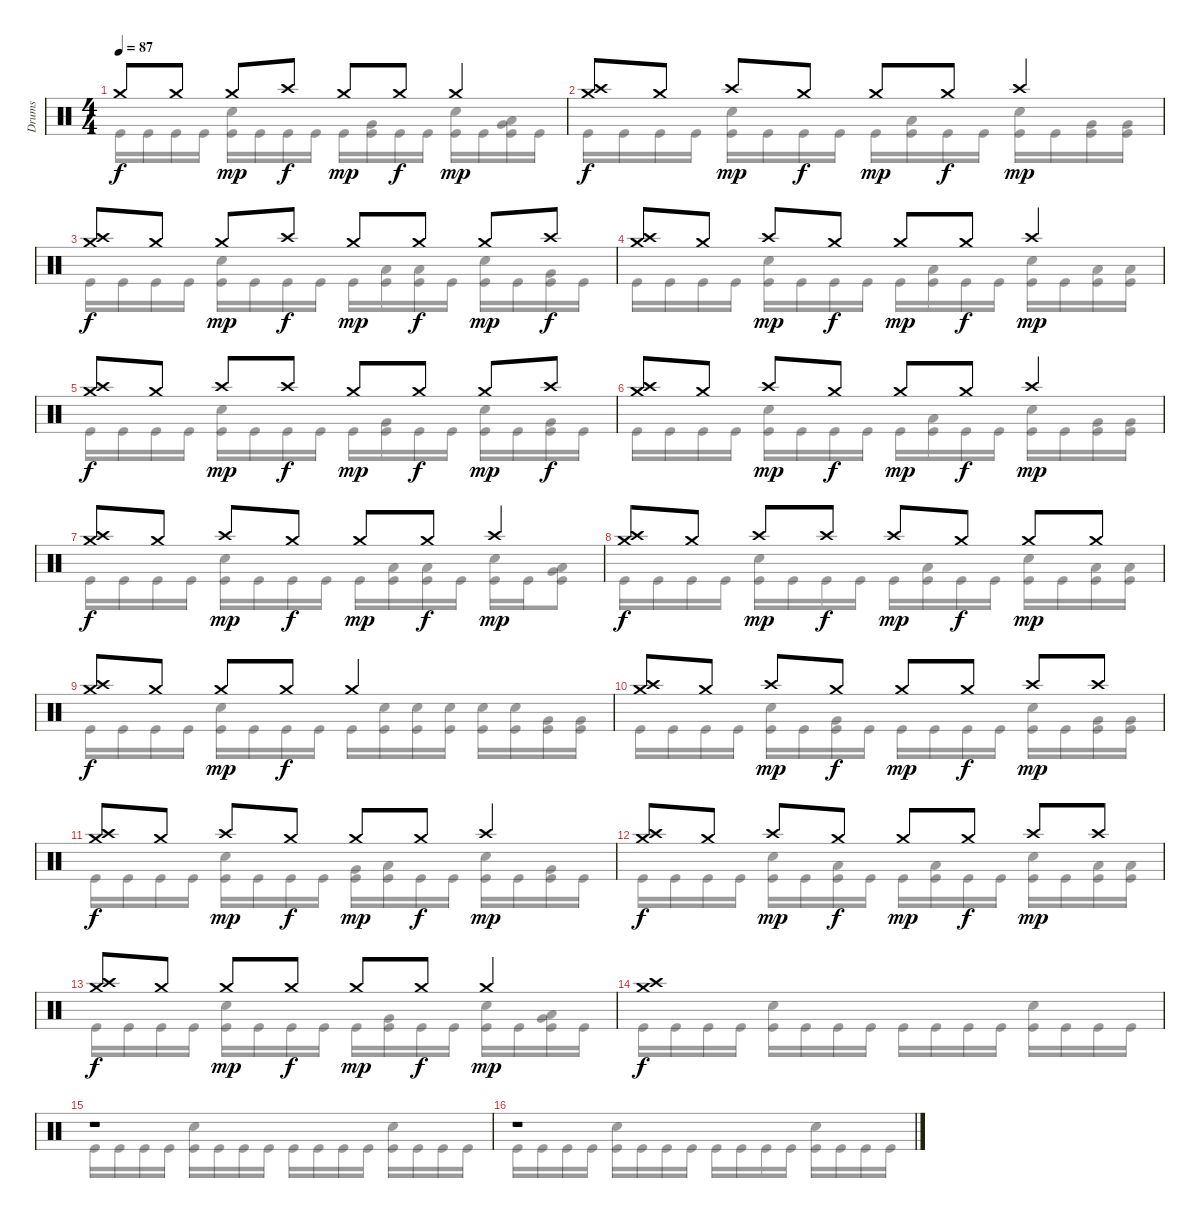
\track ("Drums" "Drums") {instrument percussion}
\staff {score}
\articulation defaults
\voice
\ts (4 4)
\tempo 87
\clef neutral
\ks c "Crash medium (hit)".8{dy f} "Crash medium (hit)".8 "Crash medium (hit)".8{dy mp} "Crash high (hit)".8{dy f} "Crash medium (hit)".8{dy mp} "Crash medium (hit)".8{dy f} "Crash medium (hit)".4{dy mp}
|
("Crash medium (hit)" "Crash high (hit)").8{dy f} "Crash medium (hit)".8 "Crash high (hit)".8{dy mp} "Crash medium (hit)".8{dy f} "Crash medium (hit)".8{dy mp} "Crash medium (hit)".8{dy f} "Crash high (hit)".4{dy mp} |
("Crash medium (hit)" "Crash high (hit)").8{dy f} "Crash medium (hit)".8 "Crash medium (hit)".8{dy mp} "Crash high (hit)".8{dy f} "Crash medium (hit)".8{dy mp} "Crash medium (hit)".8{dy f} "Crash medium (hit)".8{dy mp} "Crash high (hit)".8{dy f} |
("Crash medium (hit)" "Crash high (hit)").8 "Crash medium (hit)".8 "Crash high (hit)".8{dy mp} "Crash medium (hit)".8{dy f} "Crash medium (hit)".8{dy mp} "Crash medium (hit)".8{dy f} "Crash high (hit)".4{dy mp} |
("Crash medium (hit)" "Crash high (hit)").8{dy f} "Crash medium (hit)".8 "Crash high (hit)".8{dy mp} "Crash high (hit)".8{dy f} "Crash medium (hit)".8{dy mp} "Crash medium (hit)".8{dy f} "Crash medium (hit)".8{dy mp} "Crash high (hit)".8{dy f} |
("Crash medium (hit)" "Crash high (hit)").8 "Crash medium (hit)".8 "Crash high (hit)".8{dy mp} "Crash medium (hit)".8{dy f} "Crash medium (hit)".8{dy mp} "Crash medium (hit)".8{dy f} "Crash high (hit)".4{dy mp} |
("Crash medium (hit)" "Crash high (hit)").8{dy f} "Crash medium (hit)".8 "Crash high (hit)".8{dy mp} "Crash medium (hit)".8{dy f} "Crash medium (hit)".8{dy mp} "Crash medium (hit)".8{dy f} "Crash high (hit)".4{dy mp} |
("Crash medium (hit)" "Crash high (hit)").8{dy f} "Crash medium (hit)".8 "Crash high (hit)".8{dy mp} "Crash high (hit)".8{dy f} "Crash high (hit)".8{dy mp} "Crash medium (hit)".8{dy f} "Crash medium (hit)".8{dy mp} "Crash medium (hit)".8 |
("Crash medium (hit)" "Crash high (hit)").8{dy f} "Crash medium (hit)".8 "Crash medium (hit)".8{dy mp} "Crash medium (hit)".8{dy f} "Crash medium (hit)".2 |
("Crash medium (hit)" "Crash high (hit)").8 "Crash medium (hit)".8 "Crash high (hit)".8{dy mp} "Crash medium (hit)".8{dy f} "Crash medium (hit)".8{dy mp} "Crash medium (hit)".8{dy f} "Crash high (hit)".8{dy mp} "Crash high (hit)".8 |
("Crash medium (hit)" "Crash high (hit)").8{dy f} "Crash medium (hit)".8 "Crash high (hit)".8{dy mp} "Crash medium (hit)".8{dy f} "Crash medium (hit)".8{dy mp} "Crash medium (hit)".8{dy f} "Crash high (hit)".4{dy mp} |
("Crash medium (hit)" "Crash high (hit)").8{dy f} "Crash medium (hit)".8 "Crash high (hit)".8{dy mp} "Crash medium (hit)".8{dy f} "Crash medium (hit)".8{dy mp} "Crash medium (hit)".8{dy f} "Crash high (hit)".8{dy mp} "Crash high (hit)".8 |
("Crash medium (hit)" "Crash high (hit)").8{dy f} "Crash medium (hit)".8 "Crash medium (hit)".8{dy mp} "Crash medium (hit)".8{dy f} "Crash medium (hit)".8{dy mp} "Crash medium (hit)".8{dy f} "Crash medium (hit)".4{dy mp} |
("Crash medium (hit)" "Crash high (hit)").1{dy f} |
r.1 |
r.1
\voice
\clef neutral
\ottava regular
\simile none
\ks c "Kick (hit)".16{dy f} "Kick (hit)".16 "Kick (hit)".16 "Kick (hit)".16
("Snare (hit) 2" "Kick (hit)").16 "Kick (hit)".16 "Kick (hit)".16 "Kick (hit)".16 "Kick (hit)".16 ("Very Low Tom (hit)" "Kick (hit)").16 "Kick (hit)".16 "Kick (hit)".16 ("Snare (hit) 2" "Kick (hit)").16 "Kick (hit)".16 ("Very Low Tom (hit)" "Low Floor Tom (hit)" "Kick (hit)").16 "Kick (hit)".16 |
"Kick (hit)".16 "Kick (hit)".16 "Kick (hit)".16 "Kick (hit)".16 ("Snare (hit) 2" "Kick (hit)").16 "Kick (hit)".16 "Kick (hit)".16 "Kick (hit)".16 "Kick (hit)".16 ("Low Tom (hit)" "Kick (hit)").16 "Kick (hit)".16 "Kick (hit)".16 ("Snare (hit) 2" "Kick (hit)").16 "Kick (hit)".16 ("Very Low Tom (hit)" "Kick (hit)").16 ("Very Low Tom (hit)" "Kick (hit)").16 |
"Kick (hit)".16 "Kick (hit)".16 "Kick (hit)".16 "Kick (hit)".16 ("Snare (hit) 2" "Kick (hit)").16 "Kick (hit)".16 "Kick (hit)".16 "Kick (hit)".16 "Kick (hit)".16 ("Low Tom (hit)" "Kick (hit)").16 ("Low Tom (hit)" "Kick (hit)").16 "Kick (hit)".16 ("Snare (hit) 2" "Kick (hit)").16 "Kick (hit)".16 ("Very Low Tom (hit)" "Kick (hit)").16 "Kick (hit)".16 |
"Kick (hit)".16 "Kick (hit)".16 "Kick (hit)".16 "Kick (hit)".16 ("Snare (hit) 2" "Kick (hit)").16 "Kick (hit)".16 "Kick (hit)".16 "Kick (hit)".16 "Kick (hit)".16 ("Low Floor Tom (hit)" "Kick (hit)").16 "Kick (hit)".16 "Kick (hit)".16 ("Snare (hit) 2" "Kick (hit)").16 "Kick (hit)".16 ("Low Floor Tom (hit)" "Kick (hit)").16 ("Low Floor Tom (hit)" "Kick (hit)").16 |
"Kick (hit)".16 "Kick (hit)".16 "Kick (hit)".16 "Kick (hit)".16 ("Snare (hit) 2" "Kick (hit)").16 "Kick (hit)".16 "Kick (hit)".16 "Kick (hit)".16 "Kick (hit)".16 ("Very Low Tom (hit)" "Kick (hit)").16 "Kick (hit)".16 "Kick (hit)".16 ("Snare (hit) 2" "Kick (hit)").16 "Kick (hit)".16 ("Very Low Tom (hit)" "Kick (hit)").16 "Kick (hit)".16 |
"Kick (hit)".16 "Kick (hit)".16 "Kick (hit)".16 "Kick (hit)".16 ("Snare (hit) 2" "Kick (hit)").16 "Kick (hit)".16 "Kick (hit)".16 "Kick (hit)".16 "Kick (hit)".16 ("Low Tom (hit)" "Kick (hit)").16 "Kick (hit)".16 "Kick (hit)".16 ("Snare (hit) 2" "Kick (hit)").16 "Kick (hit)".16 ("Very Low Tom (hit)" "Kick (hit)").16 ("Very Low Tom (hit)" "Kick (hit)").16 |
"Kick (hit)".16 "Kick (hit)".16 "Kick (hit)".16 "Kick (hit)".16 ("Snare (hit) 2" "Kick (hit)").16 "Kick (hit)".16 "Kick (hit)".16 "Kick (hit)".16 "Kick (hit)".16 ("Low Tom (hit)" "Kick (hit)").16 ("Low Tom (hit)" "Kick (hit)").16 "Kick (hit)".16 ("Snare (hit) 2" "Kick (hit)").16 "Kick (hit)".16 ("Low Floor Tom (hit)" "Very Low Tom (hit)" "Kick (hit)").8 |
"Kick (hit)".16 "Kick (hit)".16 "Kick (hit)".16 "Kick (hit)".16 ("Snare (hit) 2" "Kick (hit)").16 "Kick (hit)".16 "Kick (hit)".16 "Kick (hit)".16 "Kick (hit)".16 ("Low Floor Tom (hit)" "Kick (hit)").16 "Kick (hit)".16 "Kick (hit)".16 ("Snare (hit) 2" "Kick (hit)").16 "Kick (hit)".16 ("Low Floor Tom (hit)" "Kick (hit)").16 ("Low Floor Tom (hit)" "Kick (hit)").16 |
"Kick (hit)".16 "Kick (hit)".16 "Kick (hit)".16 "Kick (hit)".16 ("Snare (hit) 2" "Kick (hit)").16 "Kick (hit)".16 "Kick (hit)".16 "Kick (hit)".16 "Kick (hit)".16 ("Snare (hit) 2" "Kick (hit)").16 ("Snare (hit) 2" "Kick (hit)").16 ("Snare (hit) 2" "Kick (hit)").16 ("Snare (hit) 2" "Kick (hit)").16 ("Snare (hit) 2" "Kick (hit)").16 ("Very Low Tom (hit)" "Kick (hit)").16 ("Very Low Tom (hit)" "Kick (hit)").16 |
"Kick (hit)".16 "Kick (hit)".16 "Kick (hit)".16 "Kick (hit)".16 ("Snare (hit) 2" "Kick (hit)").16 "Kick (hit)".16 ("Very Low Tom (hit)" "Kick (hit)").16 "Kick (hit)".16 "Kick (hit)".16 "Kick (hit)".16 "Kick (hit)".16 "Kick (hit)".16 ("Snare (hit) 2" "Kick (hit)").16 "Kick (hit)".16 ("Very Low Tom (hit)" "Kick (hit)").16 ("Very Low Tom (hit)" "Kick (hit)").16 |
"Kick (hit)".16 "Kick (hit)".16 "Kick (hit)".16 "Kick (hit)".16 ("Snare (hit) 2" "Kick (hit)").16 "Kick (hit)".16 "Kick (hit)".16 "Kick (hit)".16 ("Very Low Tom (hit)" "Kick (hit)").16 ("Low Tom (hit)" "Kick (hit)").16 "Kick (hit)".16 "Kick (hit)".16 ("Snare (hit) 2" "Kick (hit)").16 "Kick (hit)".16 ("Very Low Tom (hit)" "Kick (hit)").16 "Kick (hit)".16 |
"Kick (hit)".16 "Kick (hit)".16 "Kick (hit)".16 "Kick (hit)".16 ("Snare (hit) 2" "Kick (hit)").16 "Kick (hit)".16 ("Low Tom (hit)" "Kick (hit)").16 "Kick (hit)".16 "Kick (hit)".16 ("Low Floor Tom (hit)" "Kick (hit)").16 "Kick (hit)".16 "Kick (hit)".16 ("Snare (hit) 2" "Kick (hit)").16 "Kick (hit)".16 ("Low Floor Tom (hit)" "Kick (hit)").16 ("Low Floor Tom (hit)" "Kick (hit)").16 |
"Kick (hit)".16 "Kick (hit)".16 "Kick (hit)".16 "Kick (hit)".16 ("Snare (hit) 2" "Kick (hit)").16 "Kick (hit)".16 "Kick (hit)".16 "Kick (hit)".16 "Kick (hit)".16 ("Very Low Tom (hit)" "Kick (hit)").16 "Kick (hit)".16 "Kick (hit)".16 ("Snare (hit) 2" "Kick (hit)").16 "Kick (hit)".16 ("Very Low Tom (hit)" "Low Floor Tom (hit)" "Kick (hit)").16 "Kick (hit)".16 |
"Kick (hit)".16 "Kick (hit)".16 "Kick (hit)".16 "Kick (hit)".16 ("Snare (hit) 2" "Kick (hit)").16 "Kick (hit)".16 "Kick (hit)".16 "Kick (hit)".16 "Kick (hit)".16 "Kick (hit)".16 "Kick (hit)".16 "Kick (hit)".16 ("Snare (hit) 2" "Kick (hit)").16 "Kick (hit)".16 "Kick (hit)".16 "Kick (hit)".16 |
"Kick (hit)".16 "Kick (hit)".16 "Kick (hit)".16 "Kick (hit)".16 ("Snare (hit) 2" "Kick (hit)").16 "Kick (hit)".16 "Kick (hit)".16 "Kick (hit)".16 "Kick (hit)".16 "Kick (hit)".16 "Kick (hit)".16 "Kick (hit)".16 ("Snare (hit) 2" "Kick (hit)").16 "Kick (hit)".16 "Kick (hit)".16 "Kick (hit)".16 |
"Kick (hit)".16 "Kick (hit)".16 "Kick (hit)".16 "Kick (hit)".16 ("Snare (hit) 2" "Kick (hit)").16 "Kick (hit)".16 "Kick (hit)".16 "Kick (hit)".16 "Kick (hit)".16 "Kick (hit)".16 "Kick (hit)".16 "Kick (hit)".16 ("Snare (hit) 2" "Kick (hit)").16 "Kick (hit)".16 "Kick (hit)".16 "Kick (hit)".16
